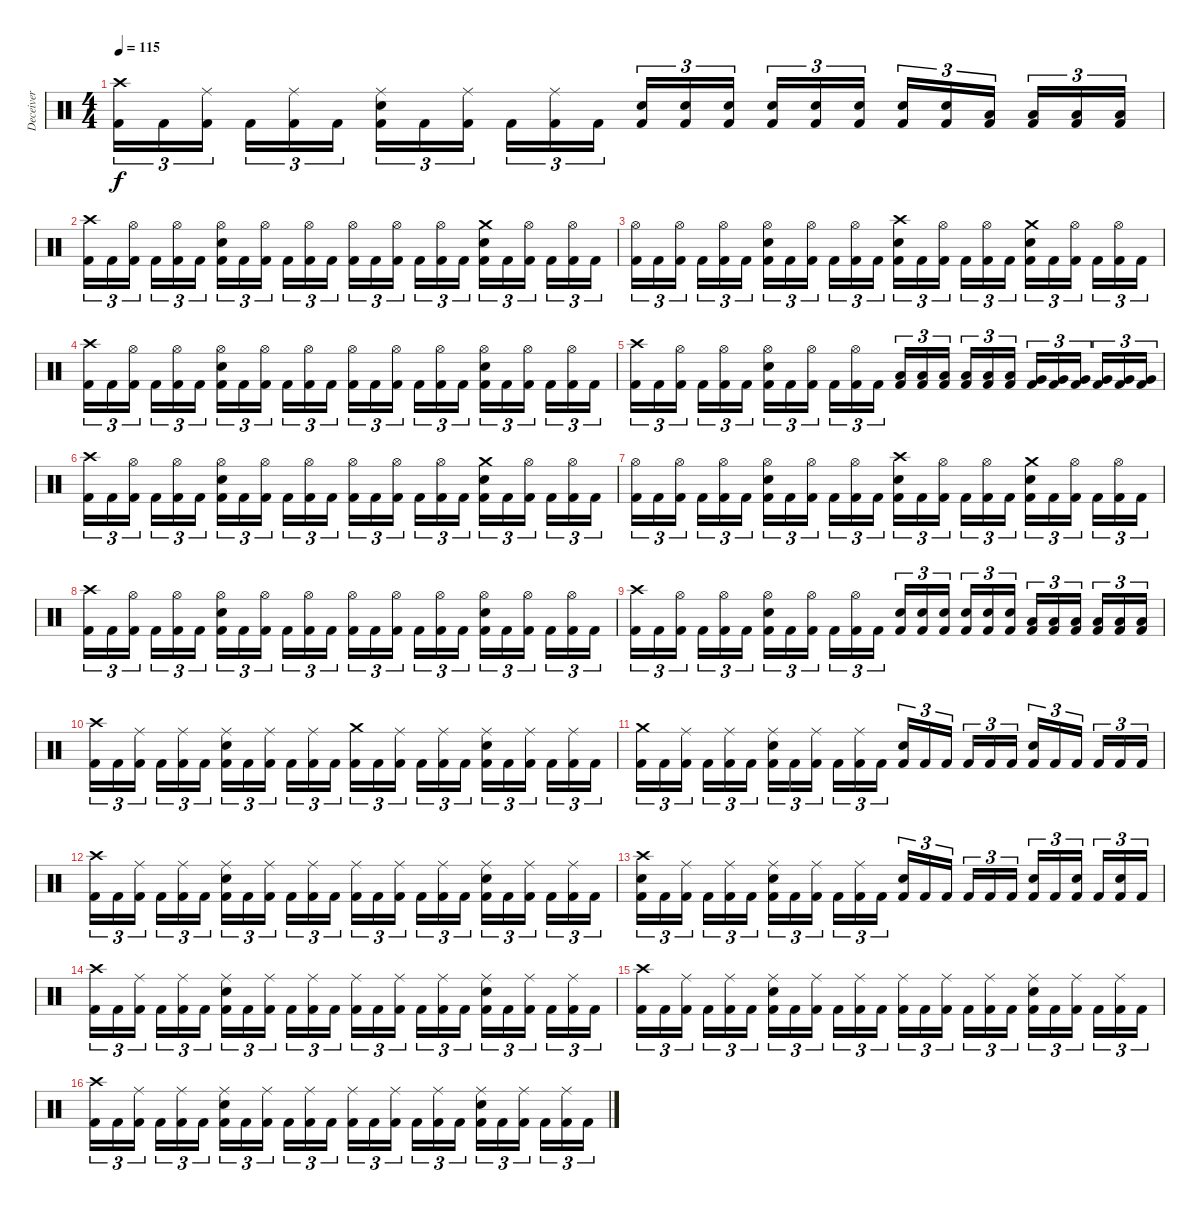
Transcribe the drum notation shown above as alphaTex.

\track ("Deceiver" "Deceiver") {instrument percussion}
\staff {score}
\articulation defaults
\ts (4 4)
\tempo 115
\clef neutral
\ks c
("Crash high (hit)" "Kick (hit) 2").16{tu (3 2) dy f} "Kick (hit) 2".16{tu (3 2)} ("Ride (middle)" "Kick (hit) 2").16{tu (3 2) beam splitsecondary} "Kick (hit) 2".16{tu (3 2)} ("Ride (middle)" "Kick (hit) 2").16{tu (3 2)} "Kick (hit) 2".16{tu (3 2)} ("Ride (middle)" "Electric Snare (hit)" "Kick (hit) 2").16{tu (3 2)} "Kick (hit) 2".16{tu (3 2)} ("Ride (middle)" "Kick (hit) 2").16{tu (3 2) beam splitsecondary} "Kick (hit) 2".16{tu (3 2)} ("Ride (middle)" "Kick (hit) 2").16{tu (3 2)} "Kick (hit) 2".16{tu (3 2)} ("Electric Snare (hit)" "Kick (hit) 2").16{tu (3 2)} ("Electric Snare (hit)" "Kick (hit) 2").16{tu (3 2)} ("Electric Snare (hit)" "Kick (hit) 2").16{tu (3 2) beam splitsecondary} ("Electric Snare (hit)" "Kick (hit) 2").16{tu (3 2)} ("Electric Snare (hit)" "Kick (hit) 2").16{tu (3 2)} ("Electric Snare (hit)" "Kick (hit) 2").16{tu (3 2)} ("Electric Snare (hit)" "Kick (hit) 2").16{tu (3 2)} ("Electric Snare (hit)" "Kick (hit) 2").16{tu (3 2)} ("Low Tom (hit)" "Kick (hit) 2").16{tu (3 2) beam splitsecondary} ("Low Tom (hit)" "Kick (hit) 2").16{tu (3 2)} ("Low Tom (hit)" "Kick (hit) 2").16{tu (3 2)} ("Low Tom (hit)" "Kick (hit) 2").16{tu (3 2)} |
("Crash high (hit)" "Kick (hit) 2").16{tu (3 2)} "Kick (hit) 2".16{tu (3 2)} ("Hi-Hat (open)" "Kick (hit) 2").16{tu (3 2) beam splitsecondary} "Kick (hit) 2".16{tu (3 2)} ("Hi-Hat (open)" "Kick (hit) 2").16{tu (3 2)} "Kick (hit) 2".16{tu (3 2)} ("Hi-Hat (open)" "Electric Snare (hit)" "Kick (hit) 2").16{tu (3 2)} "Kick (hit) 2".16{tu (3 2)} ("Hi-Hat (open)" "Kick (hit) 2").16{tu (3 2) beam splitsecondary} "Kick (hit) 2".16{tu (3 2)} ("Hi-Hat (open)" "Kick (hit) 2").16{tu (3 2)} "Kick (hit) 2".16{tu (3 2)} ("Hi-Hat (open)" "Kick (hit) 2").16{tu (3 2)} "Kick (hit) 2".16{tu (3 2)} ("Hi-Hat (open)" "Kick (hit) 2").16{tu (3 2) beam splitsecondary} "Kick (hit) 2".16{tu (3 2)} ("Hi-Hat (open)" "Kick (hit) 2").16{tu (3 2)} "Kick (hit) 2".16{tu (3 2)} ("Crash medium (hit)" "Electric Snare (hit)" "Kick (hit) 2").16{tu (3 2)} "Kick (hit) 2".16{tu (3 2)} ("Hi-Hat (open)" "Kick (hit) 2").16{tu (3 2) beam splitsecondary} "Kick (hit) 2".16{tu (3 2)} ("Hi-Hat (open)" "Kick (hit) 2").16{tu (3 2)} "Kick (hit) 2".16{tu (3 2)} |
("Hi-Hat (open)" "Kick (hit) 2").16{tu (3 2)} "Kick (hit) 2".16{tu (3 2)} ("Hi-Hat (open)" "Kick (hit) 2").16{tu (3 2) beam splitsecondary} "Kick (hit) 2".16{tu (3 2)} ("Hi-Hat (open)" "Kick (hit) 2").16{tu (3 2)} "Kick (hit) 2".16{tu (3 2)} ("Hi-Hat (open)" "Electric Snare (hit)" "Kick (hit) 2").16{tu (3 2)} "Kick (hit) 2".16{tu (3 2)} ("Hi-Hat (open)" "Kick (hit) 2").16{tu (3 2) beam splitsecondary} "Kick (hit) 2".16{tu (3 2)} ("Hi-Hat (open)" "Kick (hit) 2").16{tu (3 2)} "Kick (hit) 2".16{tu (3 2)} ("Crash high (hit)" "Electric Snare (hit)" "Kick (hit) 2").16{tu (3 2)} "Kick (hit) 2".16{tu (3 2)} ("Hi-Hat (open)" "Kick (hit) 2").16{tu (3 2) beam splitsecondary} "Kick (hit) 2".16{tu (3 2)} ("Hi-Hat (open)" "Kick (hit) 2").16{tu (3 2)} "Kick (hit) 2".16{tu (3 2)} ("Crash medium (hit)" "Electric Snare (hit)" "Kick (hit) 2").16{tu (3 2)} "Kick (hit) 2".16{tu (3 2)} ("Hi-Hat (open)" "Kick (hit) 2").16{tu (3 2) beam splitsecondary} "Kick (hit) 2".16{tu (3 2)} ("Hi-Hat (open)" "Kick (hit) 2").16{tu (3 2)} "Kick (hit) 2".16{tu (3 2)} |
("Crash high (hit)" "Kick (hit) 2").16{tu (3 2)} "Kick (hit) 2".16{tu (3 2)} ("Hi-Hat (open)" "Kick (hit) 2").16{tu (3 2) beam splitsecondary} "Kick (hit) 2".16{tu (3 2)} ("Hi-Hat (open)" "Kick (hit) 2").16{tu (3 2)} "Kick (hit) 2".16{tu (3 2)} ("Hi-Hat (open)" "Electric Snare (hit)" "Kick (hit) 2").16{tu (3 2)} "Kick (hit) 2".16{tu (3 2)} ("Hi-Hat (open)" "Kick (hit) 2").16{tu (3 2) beam splitsecondary} "Kick (hit) 2".16{tu (3 2)} ("Hi-Hat (open)" "Kick (hit) 2").16{tu (3 2)} "Kick (hit) 2".16{tu (3 2)} ("Hi-Hat (open)" "Kick (hit) 2").16{tu (3 2)} "Kick (hit) 2".16{tu (3 2)} ("Hi-Hat (open)" "Kick (hit) 2").16{tu (3 2) beam splitsecondary} "Kick (hit) 2".16{tu (3 2)} ("Hi-Hat (open)" "Kick (hit) 2").16{tu (3 2)} "Kick (hit) 2".16{tu (3 2)} ("Hi-Hat (open)" "Electric Snare (hit)" "Kick (hit) 2").16{tu (3 2)} "Kick (hit) 2".16{tu (3 2)} ("Hi-Hat (open)" "Kick (hit) 2").16{tu (3 2) beam splitsecondary} "Kick (hit) 2".16{tu (3 2)} ("Hi-Hat (open)" "Kick (hit) 2").16{tu (3 2)} "Kick (hit) 2".16{tu (3 2)} |
("Crash high (hit)" "Kick (hit) 2").16{tu (3 2)} "Kick (hit) 2".16{tu (3 2)} ("Hi-Hat (open)" "Kick (hit) 2").16{tu (3 2) beam splitsecondary} "Kick (hit) 2".16{tu (3 2)} ("Hi-Hat (open)" "Kick (hit) 2").16{tu (3 2)} "Kick (hit) 2".16{tu (3 2)} ("Hi-Hat (open)" "Electric Snare (hit)" "Kick (hit) 2").16{tu (3 2)} "Kick (hit) 2".16{tu (3 2)} ("Hi-Hat (open)" "Kick (hit) 2").16{tu (3 2) beam splitsecondary} "Kick (hit) 2".16{tu (3 2)} ("Hi-Hat (open)" "Kick (hit) 2").16{tu (3 2)} "Kick (hit) 2".16{tu (3 2)} ("Low Tom (hit)" "Kick (hit) 2").16{tu (3 2)} ("Low Tom (hit)" "Kick (hit) 2").16{tu (3 2)} ("Low Tom (hit)" "Kick (hit) 2").16{tu (3 2) beam splitsecondary} ("Low Tom (hit)" "Kick (hit) 2").16{tu (3 2)} ("Low Tom (hit)" "Kick (hit) 2").16{tu (3 2)} ("Low Tom (hit)" "Kick (hit) 2").16{tu (3 2)} ("Very Low Tom (hit)" "Kick (hit) 2").16{tu (3 2)} ("Very Low Tom (hit)" "Kick (hit) 2").16{tu (3 2)} ("Very Low Tom (hit)" "Kick (hit) 2").16{tu (3 2) beam splitsecondary} ("Very Low Tom (hit)" "Kick (hit) 2").16{tu (3 2)} ("Very Low Tom (hit)" "Kick (hit) 2").16{tu (3 2)} ("Very Low Tom (hit)" "Kick (hit) 2").16{tu (3 2)} |
("Crash high (hit)" "Kick (hit) 2").16{tu (3 2)} "Kick (hit) 2".16{tu (3 2)} ("Hi-Hat (open)" "Kick (hit) 2").16{tu (3 2) beam splitsecondary} "Kick (hit) 2".16{tu (3 2)} ("Hi-Hat (open)" "Kick (hit) 2").16{tu (3 2)} "Kick (hit) 2".16{tu (3 2)} ("Hi-Hat (open)" "Electric Snare (hit)" "Kick (hit) 2").16{tu (3 2)} "Kick (hit) 2".16{tu (3 2)} ("Hi-Hat (open)" "Kick (hit) 2").16{tu (3 2) beam splitsecondary} "Kick (hit) 2".16{tu (3 2)} ("Hi-Hat (open)" "Kick (hit) 2").16{tu (3 2)} "Kick (hit) 2".16{tu (3 2)} ("Hi-Hat (open)" "Kick (hit) 2").16{tu (3 2)} "Kick (hit) 2".16{tu (3 2)} ("Hi-Hat (open)" "Kick (hit) 2").16{tu (3 2) beam splitsecondary} "Kick (hit) 2".16{tu (3 2)} ("Hi-Hat (open)" "Kick (hit) 2").16{tu (3 2)} "Kick (hit) 2".16{tu (3 2)} ("Crash medium (hit)" "Electric Snare (hit)" "Kick (hit) 2").16{tu (3 2)} "Kick (hit) 2".16{tu (3 2)} ("Hi-Hat (open)" "Kick (hit) 2").16{tu (3 2) beam splitsecondary} "Kick (hit) 2".16{tu (3 2)} ("Hi-Hat (open)" "Kick (hit) 2").16{tu (3 2)} "Kick (hit) 2".16{tu (3 2)} |
("Hi-Hat (open)" "Kick (hit) 2").16{tu (3 2)} "Kick (hit) 2".16{tu (3 2)} ("Hi-Hat (open)" "Kick (hit) 2").16{tu (3 2) beam splitsecondary} "Kick (hit) 2".16{tu (3 2)} ("Hi-Hat (open)" "Kick (hit) 2").16{tu (3 2)} "Kick (hit) 2".16{tu (3 2)} ("Hi-Hat (open)" "Electric Snare (hit)" "Kick (hit) 2").16{tu (3 2)} "Kick (hit) 2".16{tu (3 2)} ("Hi-Hat (open)" "Kick (hit) 2").16{tu (3 2) beam splitsecondary} "Kick (hit) 2".16{tu (3 2)} ("Hi-Hat (open)" "Kick (hit) 2").16{tu (3 2)} "Kick (hit) 2".16{tu (3 2)} ("Crash high (hit)" "Electric Snare (hit)" "Kick (hit) 2").16{tu (3 2)} "Kick (hit) 2".16{tu (3 2)} ("Hi-Hat (open)" "Kick (hit) 2").16{tu (3 2) beam splitsecondary} "Kick (hit) 2".16{tu (3 2)} ("Hi-Hat (open)" "Kick (hit) 2").16{tu (3 2)} "Kick (hit) 2".16{tu (3 2)} ("Crash medium (hit)" "Electric Snare (hit)" "Kick (hit) 2").16{tu (3 2)} "Kick (hit) 2".16{tu (3 2)} ("Hi-Hat (open)" "Kick (hit) 2").16{tu (3 2) beam splitsecondary} "Kick (hit) 2".16{tu (3 2)} ("Hi-Hat (open)" "Kick (hit) 2").16{tu (3 2)} "Kick (hit) 2".16{tu (3 2)} |
("Crash high (hit)" "Kick (hit) 2").16{tu (3 2)} "Kick (hit) 2".16{tu (3 2)} ("Hi-Hat (open)" "Kick (hit) 2").16{tu (3 2) beam splitsecondary} "Kick (hit) 2".16{tu (3 2)} ("Hi-Hat (open)" "Kick (hit) 2").16{tu (3 2)} "Kick (hit) 2".16{tu (3 2)} ("Hi-Hat (open)" "Electric Snare (hit)" "Kick (hit) 2").16{tu (3 2)} "Kick (hit) 2".16{tu (3 2)} ("Hi-Hat (open)" "Kick (hit) 2").16{tu (3 2) beam splitsecondary} "Kick (hit) 2".16{tu (3 2)} ("Hi-Hat (open)" "Kick (hit) 2").16{tu (3 2)} "Kick (hit) 2".16{tu (3 2)} ("Hi-Hat (open)" "Kick (hit) 2").16{tu (3 2)} "Kick (hit) 2".16{tu (3 2)} ("Hi-Hat (open)" "Kick (hit) 2").16{tu (3 2) beam splitsecondary} "Kick (hit) 2".16{tu (3 2)} ("Hi-Hat (open)" "Kick (hit) 2").16{tu (3 2)} "Kick (hit) 2".16{tu (3 2)} ("Hi-Hat (open)" "Electric Snare (hit)" "Kick (hit) 2").16{tu (3 2)} "Kick (hit) 2".16{tu (3 2)} ("Hi-Hat (open)" "Kick (hit) 2").16{tu (3 2) beam splitsecondary} "Kick (hit) 2".16{tu (3 2)} ("Hi-Hat (open)" "Kick (hit) 2").16{tu (3 2)} "Kick (hit) 2".16{tu (3 2)} |
("Crash high (hit)" "Kick (hit) 2").16{tu (3 2)} "Kick (hit) 2".16{tu (3 2)} ("Hi-Hat (open)" "Kick (hit) 2").16{tu (3 2) beam splitsecondary} "Kick (hit) 2".16{tu (3 2)} ("Hi-Hat (open)" "Kick (hit) 2").16{tu (3 2)} "Kick (hit) 2".16{tu (3 2)} ("Hi-Hat (open)" "Electric Snare (hit)" "Kick (hit) 2").16{tu (3 2)} "Kick (hit) 2".16{tu (3 2)} ("Hi-Hat (open)" "Kick (hit) 2").16{tu (3 2) beam splitsecondary} "Kick (hit) 2".16{tu (3 2)} ("Hi-Hat (open)" "Kick (hit) 2").16{tu (3 2)} "Kick (hit) 2".16{tu (3 2)} ("Electric Snare (hit)" "Kick (hit) 2").16{tu (3 2)} ("Electric Snare (hit)" "Kick (hit) 2").16{tu (3 2)} ("Electric Snare (hit)" "Kick (hit) 2").16{tu (3 2) beam splitsecondary} ("Electric Snare (hit)" "Kick (hit) 2").16{tu (3 2)} ("Electric Snare (hit)" "Kick (hit) 2").16{tu (3 2)} ("Electric Snare (hit)" "Kick (hit) 2").16{tu (3 2)} ("Low Tom (hit)" "Kick (hit) 2").16{tu (3 2)} ("Low Tom (hit)" "Kick (hit) 2").16{tu (3 2)} ("Low Tom (hit)" "Kick (hit) 2").16{tu (3 2) beam splitsecondary} ("Low Tom (hit)" "Kick (hit) 2").16{tu (3 2)} ("Low Tom (hit)" "Kick (hit) 2").16{tu (3 2)} ("Low Tom (hit)" "Kick (hit) 2").16{tu (3 2)} |
("Crash high (hit)" "Kick (hit) 2").16{tu (3 2)} "Kick (hit) 2".16{tu (3 2)} ("Ride (middle)" "Kick (hit) 2").16{tu (3 2) beam splitsecondary} "Kick (hit) 2".16{tu (3 2)} ("Ride (middle)" "Kick (hit) 2").16{tu (3 2)} "Kick (hit) 2".16{tu (3 2)} ("Ride (middle)" "Electric Snare (hit)" "Kick (hit) 2").16{tu (3 2)} "Kick (hit) 2".16{tu (3 2)} ("Ride (middle)" "Kick (hit) 2").16{tu (3 2) beam splitsecondary} "Kick (hit) 2".16{tu (3 2)} ("Ride (middle)" "Kick (hit) 2").16{tu (3 2)} "Kick (hit) 2".16{tu (3 2)} ("Crash medium (hit)" "Kick (hit) 2").16{tu (3 2)} "Kick (hit) 2".16{tu (3 2)} ("Ride (middle)" "Kick (hit) 2").16{tu (3 2) beam splitsecondary} "Kick (hit) 2".16{tu (3 2)} ("Ride (middle)" "Kick (hit) 2").16{tu (3 2)} "Kick (hit) 2".16{tu (3 2)} ("Ride (middle)" "Electric Snare (hit)" "Kick (hit) 2").16{tu (3 2)} "Kick (hit) 2".16{tu (3 2)} ("Ride (middle)" "Kick (hit) 2").16{tu (3 2) beam splitsecondary} "Kick (hit) 2".16{tu (3 2)} ("Ride (middle)" "Kick (hit) 2").16{tu (3 2)} "Kick (hit) 2".16{tu (3 2)} |
("Crash medium (hit)" "Kick (hit) 2").16{tu (3 2)} "Kick (hit) 2".16{tu (3 2)} ("Ride (middle)" "Kick (hit) 2").16{tu (3 2) beam splitsecondary} "Kick (hit) 2".16{tu (3 2)} ("Ride (middle)" "Kick (hit) 2").16{tu (3 2)} "Kick (hit) 2".16{tu (3 2)} ("Ride (middle)" "Electric Snare (hit)" "Kick (hit) 2").16{tu (3 2)} "Kick (hit) 2".16{tu (3 2)} ("Ride (middle)" "Kick (hit) 2").16{tu (3 2) beam splitsecondary} "Kick (hit) 2".16{tu (3 2)} ("Ride (middle)" "Kick (hit) 2").16{tu (3 2)} "Kick (hit) 2".16{tu (3 2)} ("Electric Snare (hit)" "Kick (hit) 2").16{tu (3 2)} "Kick (hit) 2".16{tu (3 2)} "Kick (hit) 2".16{tu (3 2) beam splitsecondary} "Kick (hit) 2".16{tu (3 2)} "Kick (hit) 2".16{tu (3 2)} "Kick (hit) 2".16{tu (3 2)} ("Electric Snare (hit)" "Kick (hit) 2").16{tu (3 2)} "Kick (hit) 2".16{tu (3 2)} "Kick (hit) 2".16{tu (3 2) beam splitsecondary} "Kick (hit) 2".16{tu (3 2)} "Kick (hit) 2".16{tu (3 2)} "Kick (hit) 2".16{tu (3 2)} |
("Crash high (hit)" "Kick (hit) 2").16{tu (3 2)} "Kick (hit) 2".16{tu (3 2)} ("Ride (middle)" "Kick (hit) 2").16{tu (3 2) beam splitsecondary} "Kick (hit) 2".16{tu (3 2)} ("Ride (middle)" "Kick (hit) 2").16{tu (3 2)} "Kick (hit) 2".16{tu (3 2)} ("Ride (middle)" "Electric Snare (hit)" "Kick (hit) 2").16{tu (3 2)} "Kick (hit) 2".16{tu (3 2)} ("Ride (middle)" "Kick (hit) 2").16{tu (3 2) beam splitsecondary} "Kick (hit) 2".16{tu (3 2)} ("Ride (middle)" "Kick (hit) 2").16{tu (3 2)} "Kick (hit) 2".16{tu (3 2)} ("Ride (middle)" "Kick (hit) 2").16{tu (3 2)} "Kick (hit) 2".16{tu (3 2)} ("Ride (middle)" "Kick (hit) 2").16{tu (3 2) beam splitsecondary} "Kick (hit) 2".16{tu (3 2)} ("Ride (middle)" "Kick (hit) 2").16{tu (3 2)} "Kick (hit) 2".16{tu (3 2)} ("Ride (middle)" "Electric Snare (hit)" "Kick (hit) 2").16{tu (3 2)} "Kick (hit) 2".16{tu (3 2)} ("Ride (middle)" "Kick (hit) 2").16{tu (3 2) beam splitsecondary} "Kick (hit) 2".16{tu (3 2)} ("Ride (middle)" "Kick (hit) 2").16{tu (3 2)} "Kick (hit) 2".16{tu (3 2)} |
("Crash high (hit)" "Electric Snare (hit)" "Kick (hit) 2").16{tu (3 2)} "Kick (hit) 2".16{tu (3 2)} ("Ride (middle)" "Kick (hit) 2").16{tu (3 2) beam splitsecondary} "Kick (hit) 2".16{tu (3 2)} ("Ride (middle)" "Kick (hit) 2").16{tu (3 2)} "Kick (hit) 2".16{tu (3 2)} ("Ride (middle)" "Electric Snare (hit)" "Kick (hit) 2").16{tu (3 2)} "Kick (hit) 2".16{tu (3 2)} ("Ride (middle)" "Kick (hit) 2").16{tu (3 2) beam splitsecondary} "Kick (hit) 2".16{tu (3 2)} ("Ride (middle)" "Kick (hit) 2").16{tu (3 2)} "Kick (hit) 2".16{tu (3 2)} ("Electric Snare (hit)" "Kick (hit) 2").16{tu (3 2)} "Kick (hit) 2".16{tu (3 2)} "Kick (hit) 2".16{tu (3 2) beam splitsecondary} "Kick (hit) 2".16{tu (3 2)} "Kick (hit) 2".16{tu (3 2)} "Kick (hit) 2".16{tu (3 2)} ("Electric Snare (hit)" "Kick (hit) 2").16{tu (3 2)} "Kick (hit) 2".16{tu (3 2)} ("Electric Snare (hit)" "Kick (hit) 2").16{tu (3 2) beam splitsecondary} "Kick (hit) 2".16{tu (3 2)} ("Electric Snare (hit)" "Kick (hit) 2").16{tu (3 2)} "Kick (hit) 2".16{tu (3 2)} |
("Crash high (hit)" "Kick (hit) 2").16{tu (3 2)} "Kick (hit) 2".16{tu (3 2)} ("Ride (middle)" "Kick (hit) 2").16{tu (3 2) beam splitsecondary} "Kick (hit) 2".16{tu (3 2)} ("Ride (middle)" "Kick (hit) 2").16{tu (3 2)} "Kick (hit) 2".16{tu (3 2)} ("Ride (middle)" "Electric Snare (hit)" "Kick (hit) 2").16{tu (3 2)} "Kick (hit) 2".16{tu (3 2)} ("Ride (middle)" "Kick (hit) 2").16{tu (3 2) beam splitsecondary} "Kick (hit) 2".16{tu (3 2)} ("Ride (middle)" "Kick (hit) 2").16{tu (3 2)} "Kick (hit) 2".16{tu (3 2)} ("Ride (middle)" "Kick (hit) 2").16{tu (3 2)} "Kick (hit) 2".16{tu (3 2)} ("Ride (middle)" "Kick (hit) 2").16{tu (3 2) beam splitsecondary} "Kick (hit) 2".16{tu (3 2)} ("Ride (middle)" "Kick (hit) 2").16{tu (3 2)} "Kick (hit) 2".16{tu (3 2)} ("Ride (middle)" "Electric Snare (hit)" "Kick (hit) 2").16{tu (3 2)} "Kick (hit) 2".16{tu (3 2)} ("Ride (middle)" "Kick (hit) 2").16{tu (3 2) beam splitsecondary} "Kick (hit) 2".16{tu (3 2)} ("Ride (middle)" "Kick (hit) 2").16{tu (3 2)} "Kick (hit) 2".16{tu (3 2)} |
("Crash high (hit)" "Kick (hit) 2").16{tu (3 2)} "Kick (hit) 2".16{tu (3 2)} ("Ride (middle)" "Kick (hit) 2").16{tu (3 2) beam splitsecondary} "Kick (hit) 2".16{tu (3 2)} ("Ride (middle)" "Kick (hit) 2").16{tu (3 2)} "Kick (hit) 2".16{tu (3 2)} ("Ride (middle)" "Electric Snare (hit)" "Kick (hit) 2").16{tu (3 2)} "Kick (hit) 2".16{tu (3 2)} ("Ride (middle)" "Kick (hit) 2").16{tu (3 2) beam splitsecondary} "Kick (hit) 2".16{tu (3 2)} ("Ride (middle)" "Kick (hit) 2").16{tu (3 2)} "Kick (hit) 2".16{tu (3 2)} ("Ride (middle)" "Kick (hit) 2").16{tu (3 2)} "Kick (hit) 2".16{tu (3 2)} ("Ride (middle)" "Kick (hit) 2").16{tu (3 2) beam splitsecondary} "Kick (hit) 2".16{tu (3 2)} ("Ride (middle)" "Kick (hit) 2").16{tu (3 2)} "Kick (hit) 2".16{tu (3 2)} ("Ride (middle)" "Electric Snare (hit)" "Kick (hit) 2").16{tu (3 2)} "Kick (hit) 2".16{tu (3 2)} ("Ride (middle)" "Kick (hit) 2").16{tu (3 2) beam splitsecondary} "Kick (hit) 2".16{tu (3 2)} ("Ride (middle)" "Kick (hit) 2").16{tu (3 2)} "Kick (hit) 2".16{tu (3 2)} |
("Crash high (hit)" "Kick (hit) 2").16{tu (3 2)} "Kick (hit) 2".16{tu (3 2)} ("Ride (middle)" "Kick (hit) 2").16{tu (3 2) beam splitsecondary} "Kick (hit) 2".16{tu (3 2)} ("Ride (middle)" "Kick (hit) 2").16{tu (3 2)} "Kick (hit) 2".16{tu (3 2)} ("Ride (middle)" "Electric Snare (hit)" "Kick (hit) 2").16{tu (3 2)} "Kick (hit) 2".16{tu (3 2)} ("Ride (middle)" "Kick (hit) 2").16{tu (3 2) beam splitsecondary} "Kick (hit) 2".16{tu (3 2)} ("Ride (middle)" "Kick (hit) 2").16{tu (3 2)} "Kick (hit) 2".16{tu (3 2)} ("Ride (middle)" "Kick (hit) 2").16{tu (3 2)} "Kick (hit) 2".16{tu (3 2)} ("Ride (middle)" "Kick (hit) 2").16{tu (3 2) beam splitsecondary} "Kick (hit) 2".16{tu (3 2)} ("Ride (middle)" "Kick (hit) 2").16{tu (3 2)} "Kick (hit) 2".16{tu (3 2)} ("Ride (middle)" "Electric Snare (hit)" "Kick (hit) 2").16{tu (3 2)} "Kick (hit) 2".16{tu (3 2)} ("Ride (middle)" "Kick (hit) 2").16{tu (3 2) beam splitsecondary} "Kick (hit) 2".16{tu (3 2)} ("Ride (middle)" "Kick (hit) 2").16{tu (3 2)} "Kick (hit) 2".16{tu (3 2)}
